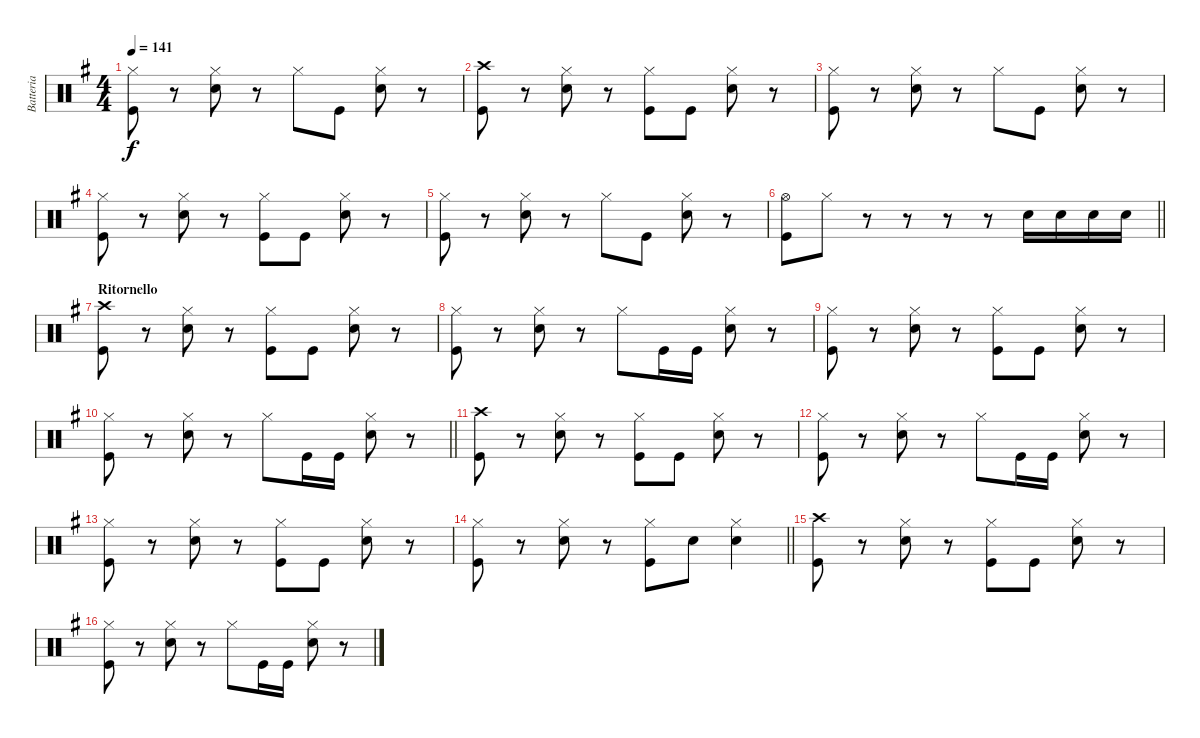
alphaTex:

\track ("Batteria" "Batteria") {instrument percussion}
\staff {score}
\articulation defaults
\ts (4 4)
\tempo 141
\clef neutral
\ks eminor
("Hi-Hat (closed)" "Kick (hit)").8{dy f} r.8 ("Hi-Hat (closed)" "Electric Snare (hit)").8 r.8 "Hi-Hat (closed)".8 "Kick (hit)".8 ("Hi-Hat (closed)" "Electric Snare (hit)").8 r.8 |
("Crash high (hit)" "Kick (hit)").8 r.8 ("Hi-Hat (closed)" "Electric Snare (hit)").8 r.8 ("Hi-Hat (closed)" "Kick (hit)").8 "Kick (hit)".8 ("Hi-Hat (closed)" "Electric Snare (hit)").8 r.8 |
("Hi-Hat (closed)" "Kick (hit)").8 r.8 ("Hi-Hat (closed)" "Electric Snare (hit)").8 r.8 "Hi-Hat (closed)".8 "Kick (hit)".8 ("Hi-Hat (closed)" "Electric Snare (hit)").8 r.8 |
("Hi-Hat (closed)" "Kick (hit)").8 r.8 ("Hi-Hat (closed)" "Electric Snare (hit)").8 r.8 ("Hi-Hat (closed)" "Kick (hit)").8 "Kick (hit)".8 ("Hi-Hat (closed)" "Electric Snare (hit)").8 r.8 |
("Hi-Hat (closed)" "Kick (hit)").8 r.8 ("Hi-Hat (closed)" "Electric Snare (hit)").8 r.8 "Hi-Hat (closed)".8 "Kick (hit)".8 ("Hi-Hat (closed)" "Electric Snare (hit)").8 r.8 |
\barLineRight lightlight
("Hi-Hat (open)" "Kick (hit)").8 "Hi-Hat (closed)".8 r.8 r.8 r.8 r.8 "Electric Snare (hit)".16 "Electric Snare (hit)".16 "Electric Snare (hit)".16 "Electric Snare (hit)".16 |
\section ("" "Ritornello")
("Crash high (hit)" "Kick (hit)").8 r.8 ("Hi-Hat (closed)" "Electric Snare (hit)").8 r.8 ("Hi-Hat (closed)" "Kick (hit)").8 "Kick (hit)".8 ("Hi-Hat (closed)" "Electric Snare (hit)").8 r.8 |
("Hi-Hat (closed)" "Kick (hit)").8 r.8 ("Hi-Hat (closed)" "Electric Snare (hit)").8 r.8 "Hi-Hat (closed)".8 "Kick (hit)".16 "Kick (hit)".16 ("Hi-Hat (closed)" "Electric Snare (hit)").8 r.8 |
("Hi-Hat (closed)" "Kick (hit)").8 r.8 ("Hi-Hat (closed)" "Electric Snare (hit)").8 r.8 ("Hi-Hat (closed)" "Kick (hit)").8 "Kick (hit)".8 ("Hi-Hat (closed)" "Electric Snare (hit)").8 r.8 |
\barLineRight lightlight
("Hi-Hat (closed)" "Kick (hit)").8 r.8 ("Hi-Hat (closed)" "Electric Snare (hit)").8 r.8 "Hi-Hat (closed)".8 "Kick (hit)".16 "Kick (hit)".16 ("Hi-Hat (closed)" "Electric Snare (hit)").8 r.8 |
("Crash high (hit)" "Kick (hit)").8 r.8 ("Hi-Hat (closed)" "Electric Snare (hit)").8 r.8 ("Hi-Hat (closed)" "Kick (hit)").8 "Kick (hit)".8 ("Hi-Hat (closed)" "Electric Snare (hit)").8 r.8 |
("Hi-Hat (closed)" "Kick (hit)").8 r.8 ("Hi-Hat (closed)" "Electric Snare (hit)").8 r.8 "Hi-Hat (closed)".8 "Kick (hit)".16 "Kick (hit)".16 ("Hi-Hat (closed)" "Electric Snare (hit)").8 r.8 |
("Hi-Hat (closed)" "Kick (hit)").8 r.8 ("Hi-Hat (closed)" "Electric Snare (hit)").8 r.8 ("Hi-Hat (closed)" "Kick (hit)").8 "Kick (hit)".8 ("Hi-Hat (closed)" "Electric Snare (hit)").8 r.8 |
\barLineRight lightlight
("Hi-Hat (closed)" "Kick (hit)").8 r.8 ("Hi-Hat (closed)" "Electric Snare (hit)").8 r.8 ("Hi-Hat (closed)" "Kick (hit)").8 "Electric Snare (hit)".8 ("Hi-Hat (closed)" "Electric Snare (hit)").4 |
("Crash high (hit)" "Kick (hit)").8 r.8 ("Hi-Hat (closed)" "Electric Snare (hit)").8 r.8 ("Hi-Hat (closed)" "Kick (hit)").8 "Kick (hit)".8 ("Hi-Hat (closed)" "Electric Snare (hit)").8 r.8 |
("Hi-Hat (closed)" "Kick (hit)").8 r.8 ("Hi-Hat (closed)" "Electric Snare (hit)").8 r.8 "Hi-Hat (closed)".8 "Kick (hit)".16 "Kick (hit)".16 ("Hi-Hat (closed)" "Electric Snare (hit)").8 r.8
